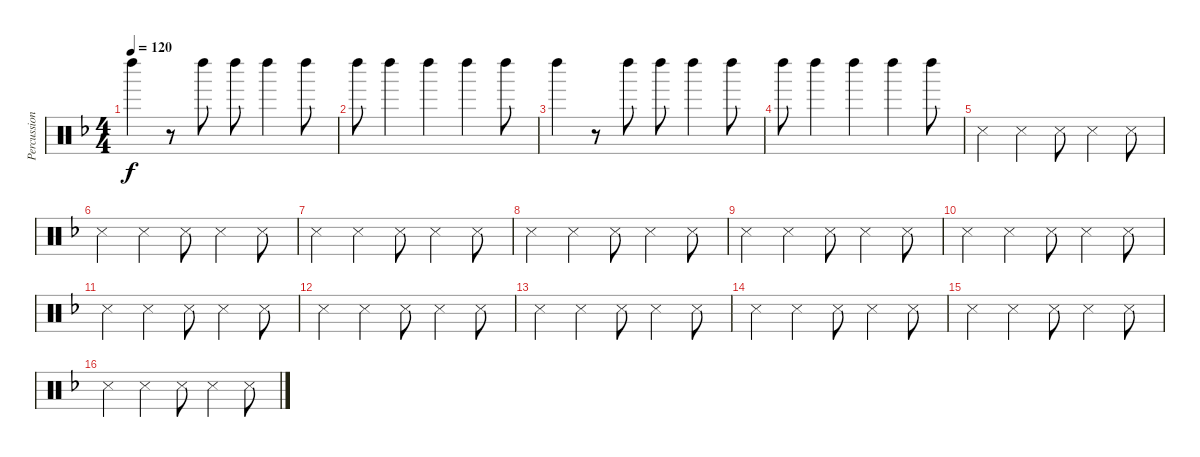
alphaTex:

\track ("Percussion" "Percussion") {instrument percussion}
\staff {score}
\articulation defaults
\ts (4 4)
\tempo 120
\clef neutral
\ks f "Left Maraca (hit)".4{dy f}
r.8 "Left Maraca (hit)".8 "Left Maraca (hit)".8 "Left Maraca (hit)".4 "Left Maraca (hit)".8 |
"Left Maraca (hit)".8 "Left Maraca (hit)".4 "Left Maraca (hit)".4 "Left Maraca (hit)".4 "Left Maraca (hit)".8 |
"Left Maraca (hit)".4 r.8 "Left Maraca (hit)".8 "Left Maraca (hit)".8 "Left Maraca (hit)".4 "Left Maraca (hit)".8 |
"Left Maraca (hit)".8 "Left Maraca (hit)".4 "Left Maraca (hit)".4 "Left Maraca (hit)".4 "Left Maraca (hit)".8 |
"Snare (side stick) 3".4 "Snare (side stick) 3".4 "Snare (side stick) 3".8 "Snare (side stick) 3".4 "Snare (side stick) 3".8 |
"Snare (side stick) 3".4 "Snare (side stick) 3".4 "Snare (side stick) 3".8 "Snare (side stick) 3".4 "Snare (side stick) 3".8 |
"Snare (side stick) 3".4 "Snare (side stick) 3".4 "Snare (side stick) 3".8 "Snare (side stick) 3".4 "Snare (side stick) 3".8 |
"Snare (side stick) 3".4 "Snare (side stick) 3".4 "Snare (side stick) 3".8 "Snare (side stick) 3".4 "Snare (side stick) 3".8 |
"Snare (side stick) 3".4 "Snare (side stick) 3".4 "Snare (side stick) 3".8 "Snare (side stick) 3".4 "Snare (side stick) 3".8 |
"Snare (side stick) 3".4 "Snare (side stick) 3".4 "Snare (side stick) 3".8 "Snare (side stick) 3".4 "Snare (side stick) 3".8 |
"Snare (side stick) 3".4 "Snare (side stick) 3".4 "Snare (side stick) 3".8 "Snare (side stick) 3".4 "Snare (side stick) 3".8 |
"Snare (side stick) 3".4 "Snare (side stick) 3".4 "Snare (side stick) 3".8 "Snare (side stick) 3".4 "Snare (side stick) 3".8 |
"Snare (side stick) 3".4 "Snare (side stick) 3".4 "Snare (side stick) 3".8 "Snare (side stick) 3".4 "Snare (side stick) 3".8 |
"Snare (side stick) 3".4 "Snare (side stick) 3".4 "Snare (side stick) 3".8 "Snare (side stick) 3".4 "Snare (side stick) 3".8 |
"Snare (side stick) 3".4 "Snare (side stick) 3".4 "Snare (side stick) 3".8 "Snare (side stick) 3".4 "Snare (side stick) 3".8 |
"Snare (side stick) 3".4 "Snare (side stick) 3".4 "Snare (side stick) 3".8 "Snare (side stick) 3".4 "Snare (side stick) 3".8
